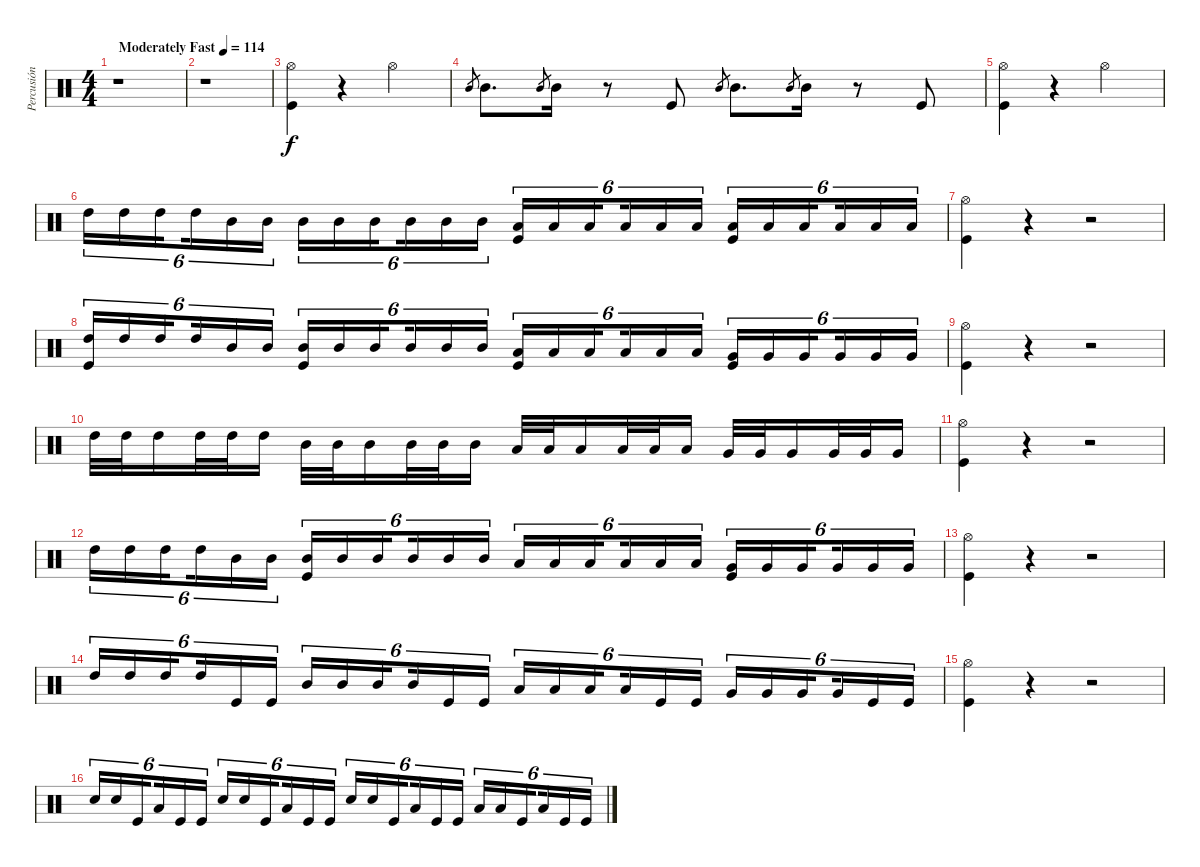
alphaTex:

\track ("Percusión" "Percusión") {instrument percussion}
\staff {score}
\articulation defaults
\ts (4 4)
\tempo (114 "Moderately Fast")
\clef neutral
\ks c
r.1{dy f} |
r.1 |
("Hi-Hat (open)" "Kick (hit)").4 r.4 "Hi-Hat (open)".2 |
"Mid Tom (hit)"{h}.8{gr} "Mid Tom (hit)".8{d} "Mid Tom (hit)"{sl}.8{gr} "Mid Tom (hit)".16 r.8 "Kick (hit)".8 "Mid Tom (hit)"{h}.8{gr} "Mid Tom (hit)".8{d} "Mid Tom (hit)"{sl}.8{gr} "Mid Tom (hit)".16 r.8 "Kick (hit)".8 |
("Hi-Hat (open)" "Kick (hit)").4 r.4 "Hi-Hat (open)".2 |
"High Tom (hit)".16{tu (6 4)} "High Tom (hit)".16{tu (6 4)} "High Tom (hit)".16{tu (6 4) beam splitsecondary} "High Tom (hit)".16{tu (6 4)} "Mid Tom (hit)".16{tu (6 4)} "Mid Tom (hit)".16{tu (6 4)} "Mid Tom (hit)".16{tu (6 4)} "Mid Tom (hit)".16{tu (6 4)} "Mid Tom (hit)".16{tu (6 4) beam splitsecondary} "Mid Tom (hit)".16{tu (6 4)} "Mid Tom (hit)".16{tu (6 4)} "Mid Tom (hit)".16{tu (6 4)} ("Low Tom (hit)" "Kick (hit)").16{tu (6 4)} "Low Tom (hit)".16{tu (6 4)} "Low Tom (hit)".16{tu (6 4) beam splitsecondary} "Low Tom (hit)".16{tu (6 4)} "Low Tom (hit)".16{tu (6 4)} "Low Tom (hit)".16{tu (6 4)} ("Low Tom (hit)" "Kick (hit)").16{tu (6 4)} "Low Tom (hit)".16{tu (6 4)} "Low Tom (hit)".16{tu (6 4) beam splitsecondary} "Low Tom (hit)".16{tu (6 4)} "Low Tom (hit)".16{tu (6 4)} "Low Tom (hit)".16{tu (6 4)} |
("Hi-Hat (open)" "Kick (hit)").4 r.4 r.2 |
("High Tom (hit)" "Kick (hit)").16{tu (6 4)} "High Tom (hit)".16{tu (6 4)} "High Tom (hit)".16{tu (6 4) beam splitsecondary} "High Tom (hit)".16{tu (6 4)} "Mid Tom (hit)".16{tu (6 4)} "Mid Tom (hit)".16{tu (6 4)} ("Mid Tom (hit)" "Kick (hit)").16{tu (6 4)} "Mid Tom (hit)".16{tu (6 4)} "Mid Tom (hit)".16{tu (6 4) beam splitsecondary} "Mid Tom (hit)".16{tu (6 4)} "Mid Tom (hit)".16{tu (6 4)} "Mid Tom (hit)".16{tu (6 4)} ("Low Tom (hit)" "Kick (hit)").16{tu (6 4)} "Low Tom (hit)".16{tu (6 4)} "Low Tom (hit)".16{tu (6 4) beam splitsecondary} "Low Tom (hit)".16{tu (6 4)} "Low Tom (hit)".16{tu (6 4)} "Low Tom (hit)".16{tu (6 4)} ("Very Low Tom (hit)" "Kick (hit)").16{tu (6 4)} "Very Low Tom (hit)".16{tu (6 4)} "Very Low Tom (hit)".16{tu (6 4) beam splitsecondary} "Very Low Tom (hit)".16{tu (6 4)} "Very Low Tom (hit)".16{tu (6 4)} "Very Low Tom (hit)".16{tu (6 4)} |
("Hi-Hat (open)" "Kick (hit)").4 r.4 r.2 |
"High Tom (hit)".32 "High Tom (hit)".32 "High Tom (hit)".16 "High Tom (hit)".32 "High Tom (hit)".32 "High Tom (hit)".16 "Mid Tom (hit)".32 "Mid Tom (hit)".32 "Mid Tom (hit)".16 "Mid Tom (hit)".32 "Mid Tom (hit)".32 "Mid Tom (hit)".16 "Low Tom (hit)".32 "Low Tom (hit)".32 "Low Tom (hit)".16 "Low Tom (hit)".32 "Low Tom (hit)".32 "Low Tom (hit)".16 "Very Low Tom (hit)".32 "Very Low Tom (hit)".32 "Very Low Tom (hit)".16 "Very Low Tom (hit)".32 "Very Low Tom (hit)".32 "Very Low Tom (hit)".16 |
("Hi-Hat (open)" "Kick (hit)").4 r.4 r.2 |
"High Tom (hit)".16{tu (6 4)} "High Tom (hit)".16{tu (6 4)} "High Tom (hit)".16{tu (6 4) beam splitsecondary} "High Tom (hit)".16{tu (6 4)} "Mid Tom (hit)".16{tu (6 4)} "Mid Tom (hit)".16{tu (6 4)} ("Mid Tom (hit)" "Kick (hit)").16{tu (6 4)} "Mid Tom (hit)".16{tu (6 4)} "Mid Tom (hit)".16{tu (6 4) beam splitsecondary} "Mid Tom (hit)".16{tu (6 4)} "Mid Tom (hit)".16{tu (6 4)} "Mid Tom (hit)".16{tu (6 4)} "Low Tom (hit)".16{tu (6 4)} "Low Tom (hit)".16{tu (6 4)} "Low Tom (hit)".16{tu (6 4) beam splitsecondary} "Low Tom (hit)".16{tu (6 4)} "Low Tom (hit)".16{tu (6 4)} "Low Tom (hit)".16{tu (6 4)} ("Very Low Tom (hit)" "Kick (hit)").16{tu (6 4)} "Very Low Tom (hit)".16{tu (6 4)} "Very Low Tom (hit)".16{tu (6 4) beam splitsecondary} "Very Low Tom (hit)".16{tu (6 4)} "Very Low Tom (hit)".16{tu (6 4)} "Very Low Tom (hit)".16{tu (6 4)} |
("Hi-Hat (open)" "Kick (hit)").4 r.4 r.2 |
"High Tom (hit)".16{tu (6 4)} "High Tom (hit)".16{tu (6 4)} "High Tom (hit)".16{tu (6 4) beam splitsecondary} "High Tom (hit)".16{tu (6 4)} "Kick (hit)".16{tu (6 4)} "Kick (hit)".16{tu (6 4)} "Mid Tom (hit)".16{tu (6 4)} "Mid Tom (hit)".16{tu (6 4)} "Mid Tom (hit)".16{tu (6 4) beam splitsecondary} "Mid Tom (hit)".16{tu (6 4)} "Kick (hit)".16{tu (6 4)} "Kick (hit)".16{tu (6 4)} "Low Tom (hit)".16{tu (6 4)} "Low Tom (hit)".16{tu (6 4)} "Low Tom (hit)".16{tu (6 4) beam splitsecondary} "Low Tom (hit)".16{tu (6 4)} "Kick (hit)".16{tu (6 4)} "Kick (hit)".16{tu (6 4)} "Very Low Tom (hit)".16{tu (6 4)} "Very Low Tom (hit)".16{tu (6 4)} "Very Low Tom (hit)".16{tu (6 4) beam splitsecondary} "Very Low Tom (hit)".16{tu (6 4)} "Kick (hit)".16{tu (6 4)} "Kick (hit)".16{tu (6 4)} |
("Hi-Hat (open)" "Kick (hit)").4 r.4 r.2 |
"Snare (hit) 2".16{tu (6 4)} "Snare (hit) 2".16{tu (6 4)} "Kick (hit)".16{tu (6 4) beam splitsecondary} "Low Tom (hit)".16{tu (6 4)} "Kick (hit)".16{tu (6 4)} "Kick (hit)".16{tu (6 4)} "Snare (hit) 2".16{tu (6 4)} "Snare (hit) 2".16{tu (6 4)} "Kick (hit)".16{tu (6 4) beam splitsecondary} "Low Tom (hit)".16{tu (6 4)} "Kick (hit)".16{tu (6 4)} "Kick (hit)".16{tu (6 4)} "Snare (hit) 2".16{tu (6 4)} "Snare (hit) 2".16{tu (6 4)} "Kick (hit)".16{tu (6 4) beam splitsecondary} "Low Tom (hit)".16{tu (6 4)} "Kick (hit)".16{tu (6 4)} "Kick (hit)".16{tu (6 4)} "Low Tom (hit)".16{tu (6 4)} "Low Tom (hit)".16{tu (6 4)} "Kick (hit)".16{tu (6 4) beam splitsecondary} "Low Tom (hit)".16{tu (6 4)} "Kick (hit)".16{tu (6 4)} "Kick (hit)".16{tu (6 4)}
